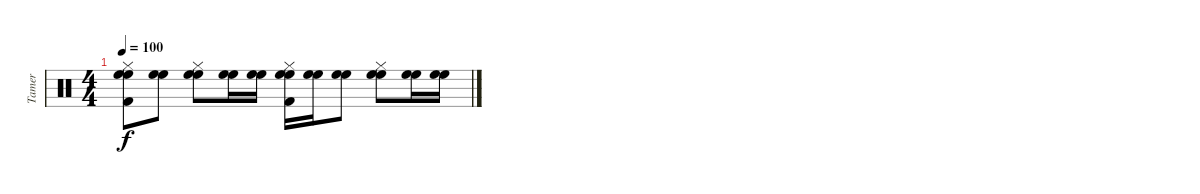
\track ("Tamer" "Tamer") {instrument percussion}
\staff {score}
\articulation defaults
\ts (4 4)
\tempo 100
\clef neutral
\ks c
("High Floor Tom (hit)" "Hi-Hat (closed)" "Kick (hit) 2" "High Floor Tom (hit)").8{dy f} ("High Floor Tom (hit)" "High Floor Tom (hit)").8 ("High Floor Tom (hit)" "Hi-Hat (closed)" "High Floor Tom (hit)").8 ("High Floor Tom (hit)" "High Floor Tom (hit)").16 ("High Floor Tom (hit)" "High Floor Tom (hit)").16 ("High Floor Tom (hit)" "Hi-Hat (closed)" "Kick (hit) 2" "High Floor Tom (hit)").16 ("High Floor Tom (hit)" "High Floor Tom (hit)").16 ("High Floor Tom (hit)" "High Floor Tom (hit)").8 ("High Floor Tom (hit)" "Hi-Hat (closed)" "High Floor Tom (hit)").8 ("High Floor Tom (hit)" "High Floor Tom (hit)").16 ("High Floor Tom (hit)" "High Floor Tom (hit)").16
